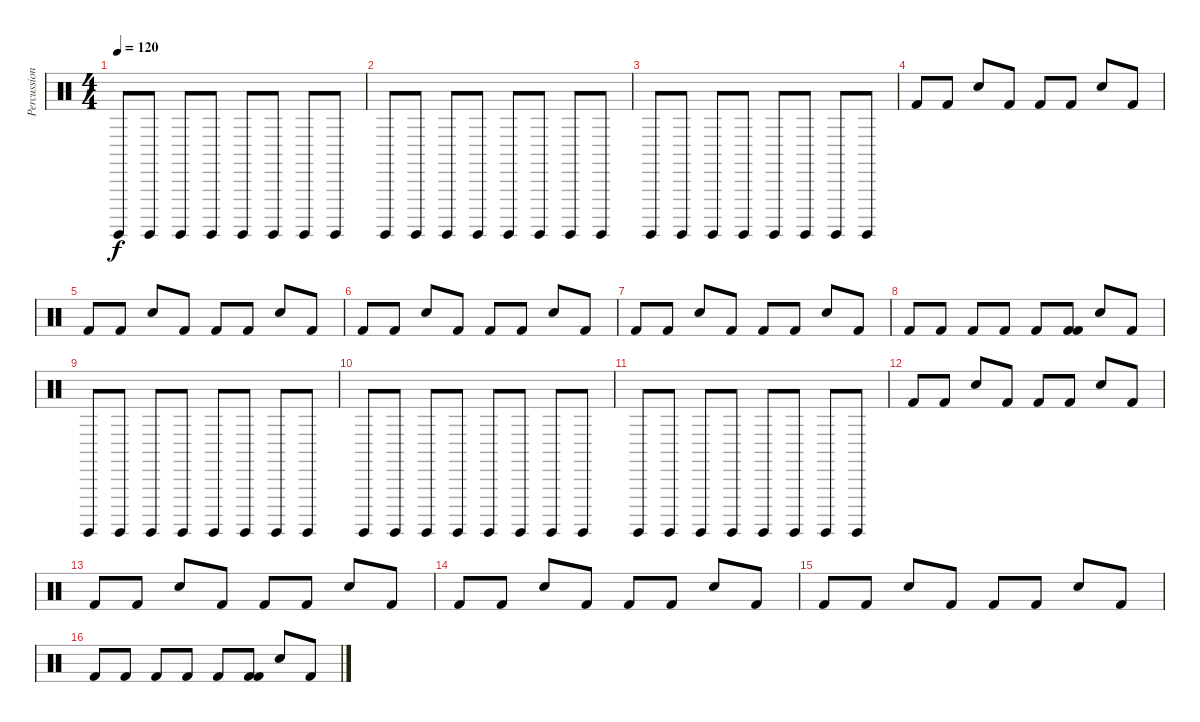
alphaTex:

\track ("Percussion" "Percussion") {instrument percussion}
\staff {score}
\articulation defaults
\ts (4 4)
\tempo 120
\clef neutral
\ks c "Surdo (hit)".8{dy f} "Surdo (hit)".8 "Surdo (hit)".8 "Surdo (hit)".8 "Surdo (hit)".8 "Surdo (hit)".8 "Surdo (hit)".8 "Surdo (hit)".8
|
"Surdo (hit)".8 "Surdo (hit)".8 "Surdo (hit)".8 "Surdo (hit)".8 "Surdo (hit)".8 "Surdo (hit)".8 "Surdo (hit)".8 "Surdo (hit)".8 |
"Surdo (hit)".8 "Surdo (hit)".8 "Surdo (hit)".8 "Surdo (hit)".8 "Surdo (hit)".8 "Surdo (hit)".8 "Surdo (hit)".8 "Surdo (hit)".8 |
"Kick (hit) 2".8 "Kick (hit) 2".8 "Electric Snare (hit)".8 "Kick (hit) 2".8 "Kick (hit) 2".8 "Kick (hit) 2".8 "Snare (hit) 2".8 "Kick (hit) 2".8 |
"Kick (hit) 2".8 "Kick (hit) 2".8 "Electric Snare (hit)".8 "Kick (hit) 2".8 "Kick (hit) 2".8 "Kick (hit) 2".8 "Snare (hit) 2".8 "Kick (hit) 2".8 |
"Kick (hit) 2".8 "Kick (hit) 2".8 "Electric Snare (hit)".8 "Kick (hit) 2".8 "Kick (hit) 2".8 "Kick (hit) 2".8 "Snare (hit) 2".8 "Kick (hit) 2".8 |
"Kick (hit) 2".8 "Kick (hit) 2".8 "Electric Snare (hit)".8 "Kick (hit) 2".8 "Kick (hit) 2".8 "Kick (hit) 2".8 "Snare (hit) 2".8 "Kick (hit) 2".8 |
"Kick (hit) 2".8 "Kick (hit) 2".8 "Kick (hit) 2".8 "Kick (hit) 2".8 "Kick (hit) 2".8 ("Kick (hit) 2" "Kick (hit) 2").8 "Snare (hit) 2".8 "Kick (hit) 2".8 |
"Surdo (hit)".8 "Surdo (hit)".8 "Surdo (hit)".8 "Surdo (hit)".8 "Surdo (hit)".8 "Surdo (hit)".8 "Surdo (hit)".8 "Surdo (hit)".8 |
"Surdo (hit)".8 "Surdo (hit)".8 "Surdo (hit)".8 "Surdo (hit)".8 "Surdo (hit)".8 "Surdo (hit)".8 "Surdo (hit)".8 "Surdo (hit)".8 |
"Surdo (hit)".8 "Surdo (hit)".8 "Surdo (hit)".8 "Surdo (hit)".8 "Surdo (hit)".8 "Surdo (hit)".8 "Surdo (hit)".8 "Surdo (hit)".8 |
"Kick (hit) 2".8 "Kick (hit) 2".8 "Electric Snare (hit)".8 "Kick (hit) 2".8 "Kick (hit) 2".8 "Kick (hit) 2".8 "Snare (hit) 2".8 "Kick (hit) 2".8 |
"Kick (hit) 2".8 "Kick (hit) 2".8 "Electric Snare (hit)".8 "Kick (hit) 2".8 "Kick (hit) 2".8 "Kick (hit) 2".8 "Snare (hit) 2".8 "Kick (hit) 2".8 |
"Kick (hit) 2".8 "Kick (hit) 2".8 "Electric Snare (hit)".8 "Kick (hit) 2".8 "Kick (hit) 2".8 "Kick (hit) 2".8 "Snare (hit) 2".8 "Kick (hit) 2".8 |
"Kick (hit) 2".8 "Kick (hit) 2".8 "Electric Snare (hit)".8 "Kick (hit) 2".8 "Kick (hit) 2".8 "Kick (hit) 2".8 "Snare (hit) 2".8 "Kick (hit) 2".8 |
"Kick (hit) 2".8 "Kick (hit) 2".8 "Kick (hit) 2".8 "Kick (hit) 2".8 "Kick (hit) 2".8 ("Kick (hit) 2" "Kick (hit) 2").8 "Snare (hit) 2".8 "Kick (hit) 2".8
